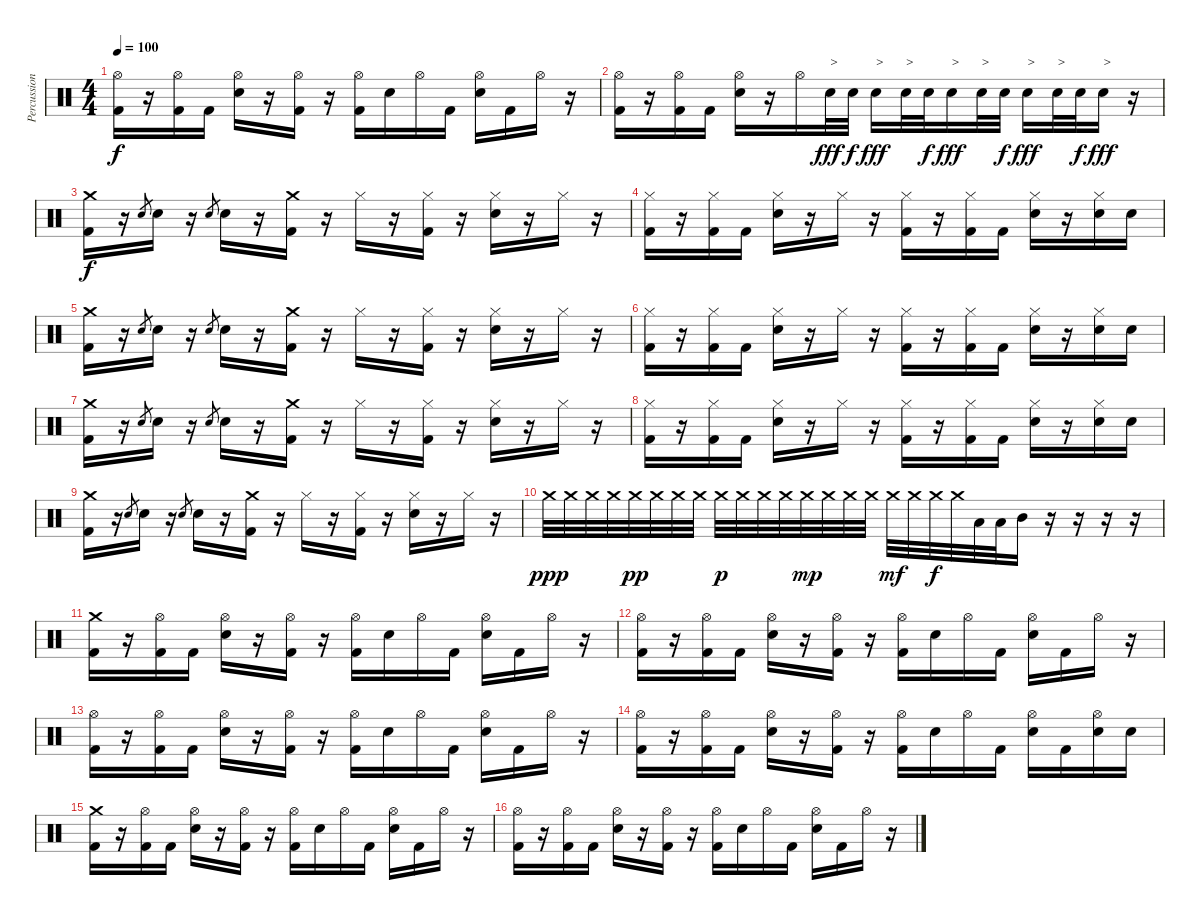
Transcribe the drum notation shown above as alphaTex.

\track ("Percussion" "Percussion") {instrument percussion}
\staff {score}
\articulation defaults
\ts (4 4)
\tempo 100
\clef neutral
\ks c
("Hi-Hat (open)" "Kick (hit) 2").16{dy f} r.16 ("Hi-Hat (open)" "Kick (hit) 2").16 "Kick (hit) 2".16 ("Hi-Hat (open)" "Snare (hit) 2").16 r.16 ("Hi-Hat (open)" "Kick (hit) 2").16 r.16 ("Hi-Hat (open)" "Kick (hit) 2").16 "Snare (hit) 2".16 "Hi-Hat (open)".16 "Kick (hit) 2".16 ("Hi-Hat (open)" "Snare (hit) 2").16 "Kick (hit) 2".16 "Hi-Hat (open)".16 r.16 |
("Hi-Hat (open)" "Kick (hit) 2").16 r.16 ("Hi-Hat (open)" "Kick (hit) 2").16 "Kick (hit) 2".16 ("Hi-Hat (open)" "Snare (hit) 2").16 r.16 "Hi-Hat (open)".16 "Snare (hit) 2".32{txt ">" dy fff} "Snare (hit) 2".32{dy f} "Snare (hit) 2".16{txt ">" dy fff} "Snare (hit) 2".32{txt ">"} "Snare (hit) 2".32{dy f} "Snare (hit) 2".16{txt ">" dy fff} "Snare (hit) 2".32{txt ">"} "Snare (hit) 2".32{dy f} "Snare (hit) 2".16{txt ">" dy fff} "Snare (hit) 2".32{txt ">"} "Snare (hit) 2".32{dy f} "Snare (hit) 2".16{txt ">" dy fff} r.16 |
("Crash medium (hit)" "Kick (hit) 2").16{dy f} r.16 "Snare (hit) 2".8{gr} "Snare (hit) 2".16 r.16 "Snare (hit) 2".8{gr} "Snare (hit) 2".16 r.16 ("Crash medium (hit)" "Kick (hit) 2").16 r.16 "Hi-Hat (closed)".16 r.16 ("Hi-Hat (closed)" "Kick (hit) 2").16 r.16 ("Hi-Hat (closed)" "Snare (hit) 2").16 r.16 "Hi-Hat (closed)".16 r.16 |
("Hi-Hat (closed)" "Kick (hit) 2").16 r.16 ("Hi-Hat (closed)" "Kick (hit) 2").16 "Kick (hit) 2".16 ("Hi-Hat (closed)" "Snare (hit) 2").16 r.16 "Hi-Hat (closed)".16 r.16 ("Hi-Hat (closed)" "Kick (hit) 2").16 r.16 ("Hi-Hat (closed)" "Kick (hit) 2").16 "Kick (hit) 2".16 ("Hi-Hat (closed)" "Snare (hit) 2").16 r.16 ("Hi-Hat (closed)" "Snare (hit) 2").16 "Snare (hit) 2".16 |
("Crash medium (hit)" "Kick (hit) 2").16 r.16 "Snare (hit) 2".8{gr} "Snare (hit) 2".16 r.16 "Snare (hit) 2".8{gr} "Snare (hit) 2".16 r.16 ("Crash medium (hit)" "Kick (hit) 2").16 r.16 "Hi-Hat (closed)".16 r.16 ("Hi-Hat (closed)" "Kick (hit) 2").16 r.16 ("Hi-Hat (closed)" "Snare (hit) 2").16 r.16 "Hi-Hat (closed)".16 r.16 |
("Hi-Hat (closed)" "Kick (hit) 2").16 r.16 ("Hi-Hat (closed)" "Kick (hit) 2").16 "Kick (hit) 2".16 ("Hi-Hat (closed)" "Snare (hit) 2").16 r.16 "Hi-Hat (closed)".16 r.16 ("Hi-Hat (closed)" "Kick (hit) 2").16 r.16 ("Hi-Hat (closed)" "Kick (hit) 2").16 "Kick (hit) 2".16 ("Hi-Hat (closed)" "Snare (hit) 2").16 r.16 ("Hi-Hat (closed)" "Snare (hit) 2").16 "Snare (hit) 2".16 |
("Crash medium (hit)" "Kick (hit) 2").16 r.16 "Snare (hit) 2".8{gr} "Snare (hit) 2".16 r.16 "Snare (hit) 2".8{gr} "Snare (hit) 2".16 r.16 ("Crash medium (hit)" "Kick (hit) 2").16 r.16 "Hi-Hat (closed)".16 r.16 ("Hi-Hat (closed)" "Kick (hit) 2").16 r.16 ("Hi-Hat (closed)" "Snare (hit) 2").16 r.16 "Hi-Hat (closed)".16 r.16 |
("Hi-Hat (closed)" "Kick (hit) 2").16 r.16 ("Hi-Hat (closed)" "Kick (hit) 2").16 "Kick (hit) 2".16 ("Hi-Hat (closed)" "Snare (hit) 2").16 r.16 "Hi-Hat (closed)".16 r.16 ("Hi-Hat (closed)" "Kick (hit) 2").16 r.16 ("Hi-Hat (closed)" "Kick (hit) 2").16 "Kick (hit) 2".16 ("Hi-Hat (closed)" "Snare (hit) 2").16 r.16 ("Hi-Hat (closed)" "Snare (hit) 2").16 "Snare (hit) 2".16 |
("Crash medium (hit)" "Kick (hit) 2").16 r.16 "Snare (hit) 2".8{gr} "Snare (hit) 2".16 r.16 "Snare (hit) 2".8{gr} "Snare (hit) 2".16 r.16 ("Crash medium (hit)" "Kick (hit) 2").16 r.16 "Hi-Hat (closed)".16 r.16 ("Hi-Hat (closed)" "Kick (hit) 2").16 r.16 ("Hi-Hat (closed)" "Snare (hit) 2").16 r.16 "Hi-Hat (closed)".16 r.16 |
"Crash medium (hit)".32{dy ppp} "Crash medium (hit)".32 "Crash medium (hit)".32 "Crash medium (hit)".32 "Crash medium (hit)".32{dy pp} "Crash medium (hit)".32 "Crash medium (hit)".32 "Crash medium (hit)".32 "Crash medium (hit)".32{dy p} "Crash medium (hit)".32 "Crash medium (hit)".32 "Crash medium (hit)".32 "Crash medium (hit)".32{dy mp} "Crash medium (hit)".32 "Crash medium (hit)".32 "Crash medium (hit)".32 "Crash medium (hit)".32{dy mf} "Crash medium (hit)".32 "Crash medium (hit)".32{dy f} "Crash medium (hit)".32 "Low Floor Tom (hit)".32 "Low Floor Tom (hit)".32 "Mid Tom (hit)".16 r.16 r.16 r.16 r.16 |
("Crash medium (hit)" "Kick (hit) 2").16 r.16 ("Hi-Hat (open)" "Kick (hit) 2").16 "Kick (hit) 2".16 ("Hi-Hat (open)" "Snare (hit) 2").16 r.16 ("Hi-Hat (open)" "Kick (hit) 2").16 r.16 ("Hi-Hat (open)" "Kick (hit) 2").16 "Snare (hit) 2".16 "Hi-Hat (open)".16 "Kick (hit) 2".16 ("Hi-Hat (open)" "Snare (hit) 2").16 "Kick (hit) 2".16 "Hi-Hat (open)".16 r.16 |
("Hi-Hat (open)" "Kick (hit) 2").16 r.16 ("Hi-Hat (open)" "Kick (hit) 2").16 "Kick (hit) 2".16 ("Hi-Hat (open)" "Snare (hit) 2").16 r.16 ("Hi-Hat (open)" "Kick (hit) 2").16 r.16 ("Hi-Hat (open)" "Kick (hit) 2").16 "Snare (hit) 2".16 "Hi-Hat (open)".16 "Kick (hit) 2".16 ("Hi-Hat (open)" "Snare (hit) 2").16 "Kick (hit) 2".16 "Hi-Hat (open)".16 r.16 |
("Hi-Hat (open)" "Kick (hit) 2").16 r.16 ("Hi-Hat (open)" "Kick (hit) 2").16 "Kick (hit) 2".16 ("Hi-Hat (open)" "Snare (hit) 2").16 r.16 ("Hi-Hat (open)" "Kick (hit) 2").16 r.16 ("Hi-Hat (open)" "Kick (hit) 2").16 "Snare (hit) 2".16 "Hi-Hat (open)".16 "Kick (hit) 2".16 ("Hi-Hat (open)" "Snare (hit) 2").16 "Kick (hit) 2".16 "Hi-Hat (open)".16 r.16 |
("Hi-Hat (open)" "Kick (hit) 2").16 r.16 ("Hi-Hat (open)" "Kick (hit) 2").16 "Kick (hit) 2".16 ("Hi-Hat (open)" "Snare (hit) 2").16 r.16 ("Hi-Hat (open)" "Kick (hit) 2").16 r.16 ("Hi-Hat (open)" "Kick (hit) 2").16 "Snare (hit) 2".16 "Hi-Hat (open)".16 "Kick (hit) 2".16 ("Hi-Hat (open)" "Snare (hit) 2").16 "Kick (hit) 2".16 ("Hi-Hat (open)" "Snare (hit) 2").16 "Snare (hit) 2".16 |
("Crash medium (hit)" "Kick (hit) 2").16 r.16 ("Hi-Hat (open)" "Kick (hit) 2").16 "Kick (hit) 2".16 ("Hi-Hat (open)" "Snare (hit) 2").16 r.16 ("Hi-Hat (open)" "Kick (hit) 2").16 r.16 ("Hi-Hat (open)" "Kick (hit) 2").16 "Snare (hit) 2".16 "Hi-Hat (open)".16 "Kick (hit) 2".16 ("Hi-Hat (open)" "Snare (hit) 2").16 "Kick (hit) 2".16 "Hi-Hat (open)".16 r.16 |
("Hi-Hat (open)" "Kick (hit) 2").16 r.16 ("Hi-Hat (open)" "Kick (hit) 2").16 "Kick (hit) 2".16 ("Hi-Hat (open)" "Snare (hit) 2").16 r.16 ("Hi-Hat (open)" "Kick (hit) 2").16 r.16 ("Hi-Hat (open)" "Kick (hit) 2").16 "Snare (hit) 2".16 "Hi-Hat (open)".16 "Kick (hit) 2".16 ("Hi-Hat (open)" "Snare (hit) 2").16 "Kick (hit) 2".16 "Hi-Hat (open)".16 r.16
